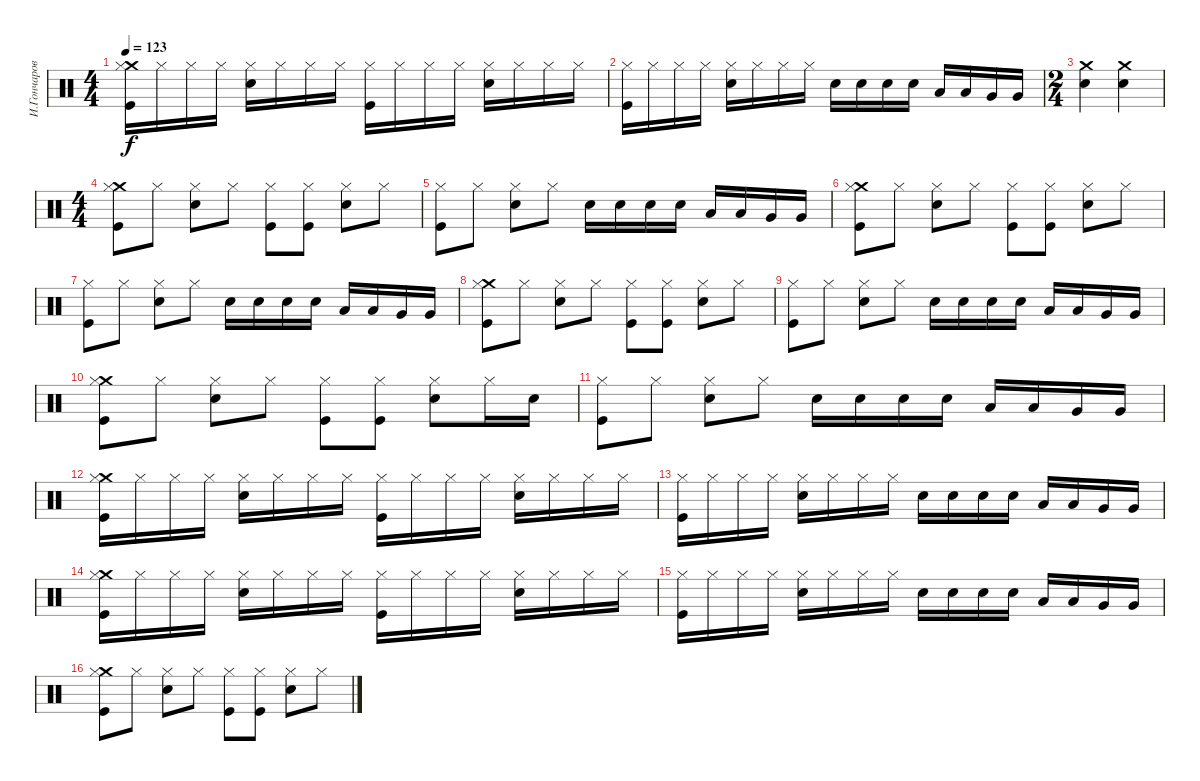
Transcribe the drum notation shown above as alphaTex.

\track ("И.Гончаров" "И.Гончаров") {instrument percussion}
\staff {score}
\articulation defaults
\ts (4 4)
\tempo 123
\clef neutral
\ks c
("Crash medium (hit)" "Hi-Hat (closed)" "Kick (hit)").16{dy f} "Hi-Hat (closed)".16 "Hi-Hat (closed)".16 "Hi-Hat (closed)".16 ("Hi-Hat (closed)" "Snare (hit) 2").16 "Hi-Hat (closed)".16 "Hi-Hat (closed)".16 "Hi-Hat (closed)".16 ("Hi-Hat (closed)" "Kick (hit)").16 "Hi-Hat (closed)".16 "Hi-Hat (closed)".16 "Hi-Hat (closed)".16 ("Hi-Hat (closed)" "Snare (hit) 2").16 "Hi-Hat (closed)".16 "Hi-Hat (closed)".16 "Hi-Hat (closed)".16 |
("Hi-Hat (closed)" "Kick (hit)").16 "Hi-Hat (closed)".16 "Hi-Hat (closed)".16 "Hi-Hat (closed)".16 ("Hi-Hat (closed)" "Snare (hit) 2").16 "Hi-Hat (closed)".16 "Hi-Hat (closed)".16 "Hi-Hat (closed)".16 "Snare (hit) 2".16 "Snare (hit) 2".16 "Snare (hit) 2".16 "Snare (hit) 2".16 "Low Tom (hit)".16 "Low Tom (hit)".16 "Very Low Tom (hit)".16 "Very Low Tom (hit)".16 |
\ts (2 4)
("Crash medium (hit)" "Snare (hit) 2").4 ("Crash medium (hit)" "Snare (hit) 2").4 |
\ts (4 4)
("Crash medium (hit)" "Hi-Hat (closed)" "Kick (hit)").8 "Hi-Hat (closed)".8 ("Hi-Hat (closed)" "Snare (hit) 2").8 "Hi-Hat (closed)".8 ("Hi-Hat (closed)" "Kick (hit)").8 ("Hi-Hat (closed)" "Kick (hit)").8 ("Hi-Hat (closed)" "Snare (hit) 2").8 "Hi-Hat (closed)".8 |
("Hi-Hat (closed)" "Kick (hit)").8 "Hi-Hat (closed)".8 ("Hi-Hat (closed)" "Snare (hit) 2").8 "Hi-Hat (closed)".8 "Snare (hit) 2".16 "Snare (hit) 2".16 "Snare (hit) 2".16 "Snare (hit) 2".16 "Low Tom (hit)".16 "Low Tom (hit)".16 "Very Low Tom (hit)".16 "Very Low Tom (hit)".16 |
("Crash medium (hit)" "Hi-Hat (closed)" "Kick (hit)").8 "Hi-Hat (closed)".8 ("Hi-Hat (closed)" "Snare (hit) 2").8 "Hi-Hat (closed)".8 ("Hi-Hat (closed)" "Kick (hit)").8 ("Hi-Hat (closed)" "Kick (hit)").8 ("Hi-Hat (closed)" "Snare (hit) 2").8 "Hi-Hat (closed)".8 |
("Hi-Hat (closed)" "Kick (hit)").8 "Hi-Hat (closed)".8 ("Hi-Hat (closed)" "Snare (hit) 2").8 "Hi-Hat (closed)".8 "Snare (hit) 2".16 "Snare (hit) 2".16 "Snare (hit) 2".16 "Snare (hit) 2".16 "Low Tom (hit)".16 "Low Tom (hit)".16 "Very Low Tom (hit)".16 "Very Low Tom (hit)".16 |
("Crash medium (hit)" "Hi-Hat (closed)" "Kick (hit)").8 "Hi-Hat (closed)".8 ("Hi-Hat (closed)" "Snare (hit) 2").8 "Hi-Hat (closed)".8 ("Hi-Hat (closed)" "Kick (hit)").8 ("Hi-Hat (closed)" "Kick (hit)").8 ("Hi-Hat (closed)" "Snare (hit) 2").8 "Hi-Hat (closed)".8 |
("Hi-Hat (closed)" "Kick (hit)").8 "Hi-Hat (closed)".8 ("Hi-Hat (closed)" "Snare (hit) 2").8 "Hi-Hat (closed)".8 "Snare (hit) 2".16 "Snare (hit) 2".16 "Snare (hit) 2".16 "Snare (hit) 2".16 "Low Tom (hit)".16 "Low Tom (hit)".16 "Very Low Tom (hit)".16 "Very Low Tom (hit)".16 |
("Crash medium (hit)" "Hi-Hat (closed)" "Kick (hit)").8 "Hi-Hat (closed)".8 ("Hi-Hat (closed)" "Snare (hit) 2").8 "Hi-Hat (closed)".8 ("Hi-Hat (closed)" "Kick (hit)").8 ("Hi-Hat (closed)" "Kick (hit)").8 ("Hi-Hat (closed)" "Snare (hit) 2").8 "Hi-Hat (closed)".16 "Snare (hit) 2".16 |
("Hi-Hat (closed)" "Kick (hit)").8 "Hi-Hat (closed)".8 ("Hi-Hat (closed)" "Snare (hit) 2").8 "Hi-Hat (closed)".8 "Snare (hit) 2".16 "Snare (hit) 2".16 "Snare (hit) 2".16 "Snare (hit) 2".16 "Low Tom (hit)".16 "Low Tom (hit)".16 "Very Low Tom (hit)".16 "Very Low Tom (hit)".16 |
("Crash medium (hit)" "Hi-Hat (closed)" "Kick (hit)").16 "Hi-Hat (closed)".16 "Hi-Hat (closed)".16 "Hi-Hat (closed)".16 ("Hi-Hat (closed)" "Snare (hit) 2").16 "Hi-Hat (closed)".16 "Hi-Hat (closed)".16 "Hi-Hat (closed)".16 ("Hi-Hat (closed)" "Kick (hit)").16 "Hi-Hat (closed)".16 "Hi-Hat (closed)".16 "Hi-Hat (closed)".16 ("Hi-Hat (closed)" "Snare (hit) 2").16 "Hi-Hat (closed)".16 "Hi-Hat (closed)".16 "Hi-Hat (closed)".16 |
("Hi-Hat (closed)" "Kick (hit)").16 "Hi-Hat (closed)".16 "Hi-Hat (closed)".16 "Hi-Hat (closed)".16 ("Hi-Hat (closed)" "Snare (hit) 2").16 "Hi-Hat (closed)".16 "Hi-Hat (closed)".16 "Hi-Hat (closed)".16 "Snare (hit) 2".16 "Snare (hit) 2".16 "Snare (hit) 2".16 "Snare (hit) 2".16 "Low Tom (hit)".16 "Low Tom (hit)".16 "Very Low Tom (hit)".16 "Very Low Tom (hit)".16 |
("Crash medium (hit)" "Hi-Hat (closed)" "Kick (hit)").16 "Hi-Hat (closed)".16 "Hi-Hat (closed)".16 "Hi-Hat (closed)".16 ("Hi-Hat (closed)" "Snare (hit) 2").16 "Hi-Hat (closed)".16 "Hi-Hat (closed)".16 "Hi-Hat (closed)".16 ("Hi-Hat (closed)" "Kick (hit)").16 "Hi-Hat (closed)".16 "Hi-Hat (closed)".16 "Hi-Hat (closed)".16 ("Hi-Hat (closed)" "Snare (hit) 2").16 "Hi-Hat (closed)".16 "Hi-Hat (closed)".16 "Hi-Hat (closed)".16 |
("Hi-Hat (closed)" "Kick (hit)").16 "Hi-Hat (closed)".16 "Hi-Hat (closed)".16 "Hi-Hat (closed)".16 ("Hi-Hat (closed)" "Snare (hit) 2").16 "Hi-Hat (closed)".16 "Hi-Hat (closed)".16 "Hi-Hat (closed)".16 "Snare (hit) 2".16 "Snare (hit) 2".16 "Snare (hit) 2".16 "Snare (hit) 2".16 "Low Tom (hit)".16 "Low Tom (hit)".16 "Very Low Tom (hit)".16 "Very Low Tom (hit)".16 |
("Crash medium (hit)" "Hi-Hat (closed)" "Kick (hit)").8 "Hi-Hat (closed)".8 ("Hi-Hat (closed)" "Snare (hit) 2").8 "Hi-Hat (closed)".8 ("Hi-Hat (closed)" "Kick (hit)").8 ("Hi-Hat (closed)" "Kick (hit)").8 ("Hi-Hat (closed)" "Snare (hit) 2").8 "Hi-Hat (closed)".8
